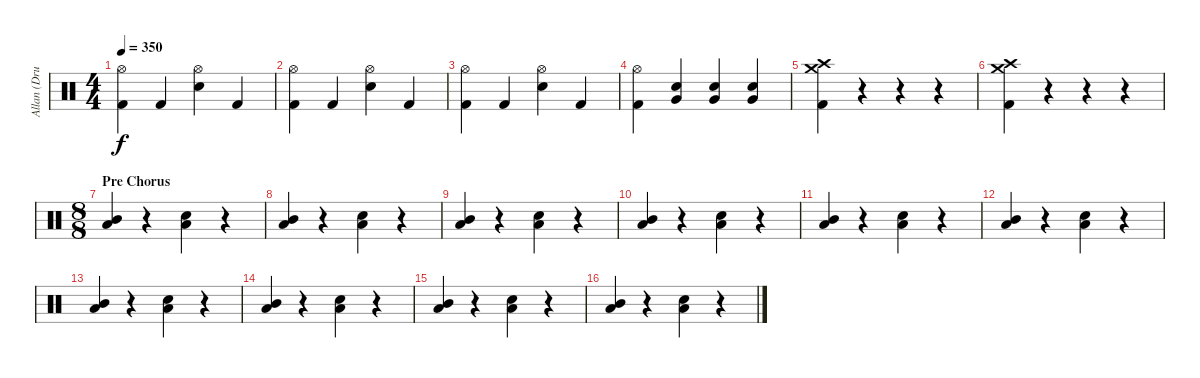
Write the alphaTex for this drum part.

\track ("Allan (Drums)" "Allan (Dru") {instrument percussion}
\staff {score}
\articulation defaults
\ts (4 4)
\tempo 350
\clef neutral
\ks c
("Hi-Hat (open)" "Kick (hit) 2").4{dy f} "Kick (hit) 2".4 ("Hi-Hat (open)" "Snare (hit) 2").4 "Kick (hit) 2".4 |
("Hi-Hat (open)" "Kick (hit) 2").4 "Kick (hit) 2".4 ("Hi-Hat (open)" "Snare (hit) 2").4 "Kick (hit) 2".4 |
("Hi-Hat (open)" "Kick (hit) 2").4 "Kick (hit) 2".4 ("Hi-Hat (open)" "Snare (hit) 2").4 "Kick (hit) 2".4 |
("Hi-Hat (open)" "Kick (hit) 2").4 ("Very Low Tom (hit)" "Snare (hit) 2").4 ("Very Low Tom (hit)" "Snare (hit) 2").4 ("Very Low Tom (hit)" "Snare (hit) 2").4 |
("Crash medium (hit)" "Crash high (hit)" "Kick (hit) 2").4 r.4 r.4 r.4 |
("Crash high (hit)" "Crash medium (hit)" "Kick (hit) 2").4 r.4 r.4 r.4 |
\ts (8 8)
\section ("" "Pre Chorus")
("Low Tom (hit)" "Mid Tom (hit)").4 r.4 ("Low Tom (hit)" "Snare (hit) 2").4 r.4 |
("Low Tom (hit)" "Mid Tom (hit)").4 r.4 ("Low Tom (hit)" "Snare (hit) 2").4 r.4 |
("Low Tom (hit)" "Mid Tom (hit)").4 r.4 ("Low Tom (hit)" "Snare (hit) 2").4 r.4 |
("Low Tom (hit)" "Mid Tom (hit)").4 r.4 ("Low Tom (hit)" "Snare (hit) 2").4 r.4 |
("Low Tom (hit)" "Mid Tom (hit)").4 r.4 ("Low Tom (hit)" "Snare (hit) 2").4 r.4 |
("Low Tom (hit)" "Mid Tom (hit)").4 r.4 ("Low Tom (hit)" "Snare (hit) 2").4 r.4 |
("Low Tom (hit)" "Mid Tom (hit)").4 r.4 ("Low Tom (hit)" "Snare (hit) 2").4 r.4 |
("Low Tom (hit)" "Mid Tom (hit)").4 r.4 ("Low Tom (hit)" "Snare (hit) 2").4 r.4 |
("Low Tom (hit)" "Mid Tom (hit)").4 r.4 ("Low Tom (hit)" "Snare (hit) 2").4 r.4 |
("Low Tom (hit)" "Mid Tom (hit)").4 r.4 ("Low Tom (hit)" "Snare (hit) 2").4 r.4
